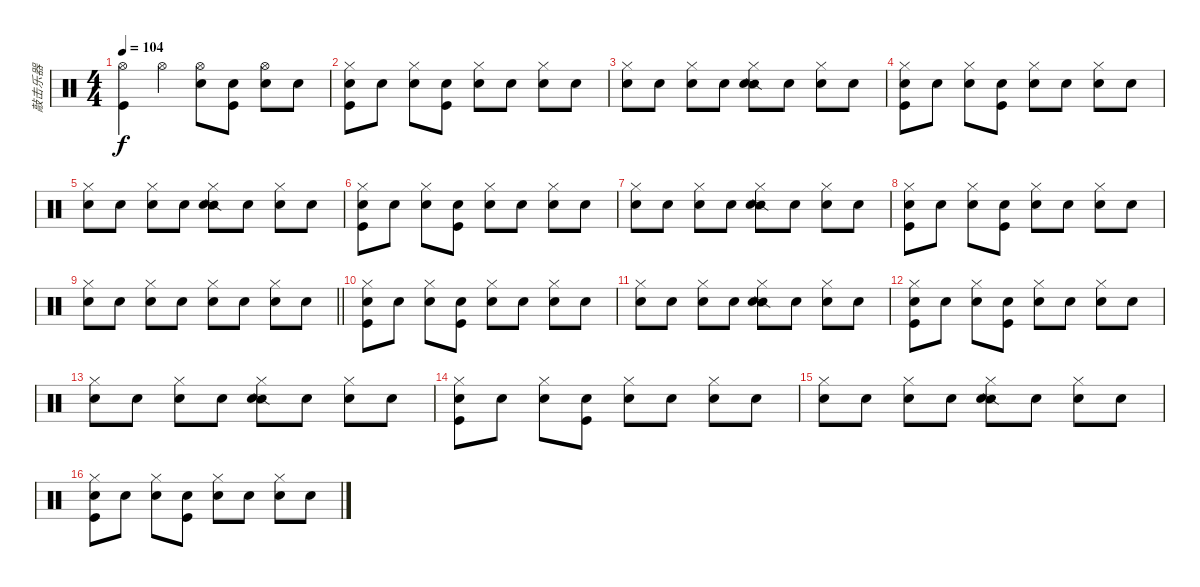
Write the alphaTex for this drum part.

\track ("敲击乐器" "敲击乐器") {instrument percussion}
\staff {score}
\articulation defaults
\ts (4 4)
\tempo 104
\clef neutral
\ks c
("Hi-Hat (open)" "Kick (hit)").4{dy f} "Hi-Hat (open)".4 ("Hi-Hat (open)" "Snare (hit) 2").8 ("Snare (hit) 2" "Kick (hit)").8 ("Hi-Hat (open)" "Snare (hit) 2").8 "Snare (hit) 2".8 |
("Hi-Hat (closed)" "Snare (hit)" "Kick (hit)").8 "Snare (hit)".8 ("Hi-Hat (closed)" "Snare (hit)").8 ("Snare (hit)" "Kick (hit)").8 ("Hi-Hat (closed)" "Snare (hit)").8 "Snare (hit)".8 ("Hi-Hat (closed)" "Snare (hit)").8 "Snare (hit)".8 |
("Hi-Hat (closed)" "Snare (hit)").8 "Snare (hit)".8 ("Hi-Hat (closed)" "Snare (hit)").8 "Snare (hit)".8 ("Snare (side stick) 2" "Hi-Hat (closed)" "Snare (hit)").8 "Snare (hit)".8 ("Hi-Hat (closed)" "Snare (hit)").8 "Snare (hit)".8 |
("Hi-Hat (closed)" "Snare (hit)" "Kick (hit)").8 "Snare (hit)".8 ("Hi-Hat (closed)" "Snare (hit)").8 ("Snare (hit)" "Kick (hit)").8 ("Hi-Hat (closed)" "Snare (hit)").8 "Snare (hit)".8 ("Hi-Hat (closed)" "Snare (hit)").8 "Snare (hit)".8 |
("Hi-Hat (closed)" "Snare (hit)").8 "Snare (hit)".8 ("Hi-Hat (closed)" "Snare (hit)").8 "Snare (hit)".8 ("Snare (side stick) 2" "Hi-Hat (closed)" "Snare (hit)").8 "Snare (hit)".8 ("Hi-Hat (closed)" "Snare (hit)").8 "Snare (hit)".8 |
("Hi-Hat (closed)" "Snare (hit)" "Kick (hit)").8 "Snare (hit)".8 ("Hi-Hat (closed)" "Snare (hit)").8 ("Snare (hit)" "Kick (hit)").8 ("Hi-Hat (closed)" "Snare (hit)").8 "Snare (hit)".8 ("Hi-Hat (closed)" "Snare (hit)").8 "Snare (hit)".8 |
("Hi-Hat (closed)" "Snare (hit)").8 "Snare (hit)".8 ("Hi-Hat (closed)" "Snare (hit)").8 "Snare (hit)".8 ("Snare (side stick) 2" "Hi-Hat (closed)" "Snare (hit)").8 "Snare (hit)".8 ("Hi-Hat (closed)" "Snare (hit)").8 "Snare (hit)".8 |
("Hi-Hat (closed)" "Snare (hit)" "Kick (hit)").8 "Snare (hit)".8 ("Hi-Hat (closed)" "Snare (hit)").8 ("Snare (hit)" "Kick (hit)").8 ("Hi-Hat (closed)" "Snare (hit)").8 "Snare (hit)".8 ("Hi-Hat (closed)" "Snare (hit)").8 "Snare (hit)".8 |
\barLineRight lightlight
("Hi-Hat (closed)" "Snare (hit)").8 "Snare (hit)".8 ("Hi-Hat (closed)" "Snare (hit)").8 "Snare (hit)".8 ("Hi-Hat (closed)" "Snare (hit)").8 "Snare (hit)".8 ("Hi-Hat (closed)" "Snare (hit)").8 "Snare (hit)".8 |
("Hi-Hat (closed)" "Snare (hit)" "Kick (hit)").8 "Snare (hit)".8 ("Hi-Hat (closed)" "Snare (hit)").8 ("Snare (hit)" "Kick (hit)").8 ("Hi-Hat (closed)" "Snare (hit)").8 "Snare (hit)".8 ("Hi-Hat (closed)" "Snare (hit)").8 "Snare (hit)".8 |
("Hi-Hat (closed)" "Snare (hit)").8 "Snare (hit)".8 ("Hi-Hat (closed)" "Snare (hit)").8 "Snare (hit)".8 ("Snare (side stick) 2" "Hi-Hat (closed)" "Snare (hit)").8 "Snare (hit)".8 ("Hi-Hat (closed)" "Snare (hit)").8 "Snare (hit)".8 |
("Hi-Hat (closed)" "Snare (hit)" "Kick (hit)").8 "Snare (hit)".8 ("Hi-Hat (closed)" "Snare (hit)").8 ("Snare (hit)" "Kick (hit)").8 ("Hi-Hat (closed)" "Snare (hit)").8 "Snare (hit)".8 ("Hi-Hat (closed)" "Snare (hit)").8 "Snare (hit)".8 |
("Hi-Hat (closed)" "Snare (hit)").8 "Snare (hit)".8 ("Hi-Hat (closed)" "Snare (hit)").8 "Snare (hit)".8 ("Snare (side stick) 2" "Hi-Hat (closed)" "Snare (hit)").8 "Snare (hit)".8 ("Hi-Hat (closed)" "Snare (hit)").8 "Snare (hit)".8 |
("Hi-Hat (closed)" "Snare (hit)" "Kick (hit)").8 "Snare (hit)".8 ("Hi-Hat (closed)" "Snare (hit)").8 ("Snare (hit)" "Kick (hit)").8 ("Hi-Hat (closed)" "Snare (hit)").8 "Snare (hit)".8 ("Hi-Hat (closed)" "Snare (hit)").8 "Snare (hit)".8 |
("Hi-Hat (closed)" "Snare (hit)").8 "Snare (hit)".8 ("Hi-Hat (closed)" "Snare (hit)").8 "Snare (hit)".8 ("Snare (side stick) 2" "Hi-Hat (closed)" "Snare (hit)").8 "Snare (hit)".8 ("Hi-Hat (closed)" "Snare (hit)").8 "Snare (hit)".8 |
("Hi-Hat (closed)" "Snare (hit)" "Kick (hit)").8 "Snare (hit)".8 ("Hi-Hat (closed)" "Snare (hit)").8 ("Snare (hit)" "Kick (hit)").8 ("Hi-Hat (closed)" "Snare (hit)").8 "Snare (hit)".8 ("Hi-Hat (closed)" "Snare (hit)").8 "Snare (hit)".8
